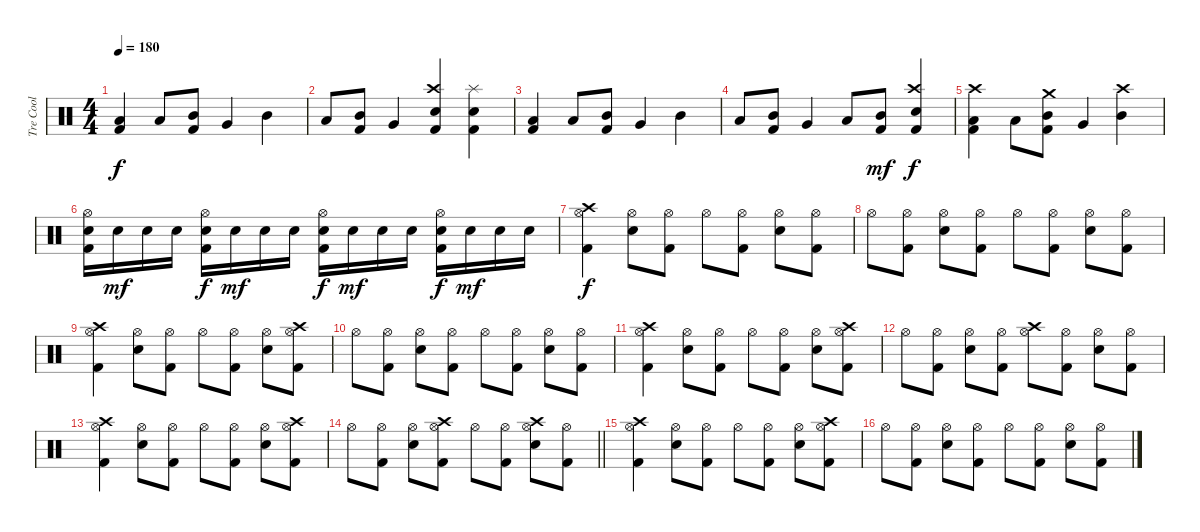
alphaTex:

\track ("Tre Cool" "Tre Cool") {instrument percussion}
\staff {score}
\articulation defaults
\ts (4 4)
\tempo 180
\clef neutral
\ks c
("Low Tom (hit)" "Kick (hit) 2").4{dy f} "Low Tom (hit)".8 ("Mid Tom (hit)" "Kick (hit) 2").8 "Very Low Tom (hit)".4 "Mid Tom (hit)".4 |
"Low Tom (hit)".8 ("Mid Tom (hit)" "Kick (hit) 2").8 "Very Low Tom (hit)".4 ("Crash high (hit)" "Electric Snare (hit)" "Kick (hit) 2").4 ("Splash (hit)" "Electric Snare (hit)" "Kick (hit) 2").4 |
("Low Tom (hit)" "Kick (hit) 2").4 "Low Tom (hit)".8 ("Mid Tom (hit)" "Kick (hit) 2").8 "Very Low Tom (hit)".4 "Mid Tom (hit)".4 |
"Low Tom (hit)".8 ("Mid Tom (hit)" "Kick (hit) 2").8 "Very Low Tom (hit)".4 "Low Tom (hit)".8 ("Mid Tom (hit)" "Kick (hit) 2").8{dy mf} ("Crash high (hit)" "Electric Snare (hit)" "Kick (hit) 2").4{dy f} |
("Crash high (hit)" "Low Tom (hit)" "Kick (hit) 2").4 "Low Tom (hit)".8 ("Crash medium (hit)" "Mid Tom (hit)" "Kick (hit) 2").8 "Very Low Tom (hit)".4 ("Crash high (hit)" "Mid Tom (hit)").4 |
("Hi-Hat (open)" "Electric Snare (hit)" "Kick (hit) 2").16 "Electric Snare (hit)".16{dy mf} "Electric Snare (hit)".16 "Electric Snare (hit)".16 ("Hi-Hat (open)" "Electric Snare (hit)" "Kick (hit) 2").16{dy f} "Electric Snare (hit)".16{dy mf} "Electric Snare (hit)".16 "Electric Snare (hit)".16 ("Hi-Hat (open)" "Electric Snare (hit)" "Kick (hit) 2").16{dy f} "Electric Snare (hit)".16{dy mf} "Electric Snare (hit)".16 "Electric Snare (hit)".16 ("Hi-Hat (open)" "Electric Snare (hit)" "Kick (hit) 2").16{dy f} "Electric Snare (hit)".16{dy mf} "Electric Snare (hit)".16 "Electric Snare (hit)".16 |
("Crash high (hit)" "Hi-Hat (open)" "Kick (hit) 2").4{dy f} ("Hi-Hat (open)" "Electric Snare (hit)").8 ("Hi-Hat (open)" "Kick (hit) 2").8 "Hi-Hat (open)".8 ("Hi-Hat (open)" "Kick (hit) 2").8 ("Hi-Hat (open)" "Electric Snare (hit)").8 ("Hi-Hat (open)" "Kick (hit) 2").8 |
"Hi-Hat (open)".8 ("Hi-Hat (open)" "Kick (hit) 2").8 ("Hi-Hat (open)" "Electric Snare (hit)").8 ("Hi-Hat (open)" "Kick (hit) 2").8 "Hi-Hat (open)".8 ("Hi-Hat (open)" "Kick (hit) 2").8 ("Hi-Hat (open)" "Electric Snare (hit)").8 ("Hi-Hat (open)" "Kick (hit) 2").8 |
("Crash high (hit)" "Hi-Hat (open)" "Kick (hit) 2").4 ("Hi-Hat (open)" "Electric Snare (hit)").8 ("Hi-Hat (open)" "Kick (hit) 2").8 "Hi-Hat (open)".8 ("Hi-Hat (open)" "Kick (hit) 2").8 ("Hi-Hat (open)" "Electric Snare (hit)").8 ("Crash high (hit)" "Hi-Hat (open)" "Kick (hit) 2").8 |
"Hi-Hat (open)".8 ("Hi-Hat (open)" "Kick (hit) 2").8 ("Hi-Hat (open)" "Electric Snare (hit)").8 ("Hi-Hat (open)" "Kick (hit) 2").8 "Hi-Hat (open)".8 ("Hi-Hat (open)" "Kick (hit) 2").8 ("Hi-Hat (open)" "Electric Snare (hit)").8 ("Hi-Hat (open)" "Kick (hit) 2").8 |
("Crash high (hit)" "Hi-Hat (open)" "Kick (hit) 2").4 ("Hi-Hat (open)" "Electric Snare (hit)").8 ("Hi-Hat (open)" "Kick (hit) 2").8 "Hi-Hat (open)".8 ("Hi-Hat (open)" "Kick (hit) 2").8 ("Hi-Hat (open)" "Electric Snare (hit)").8 ("Crash high (hit)" "Hi-Hat (open)" "Kick (hit) 2").8 |
"Hi-Hat (open)".8 ("Hi-Hat (open)" "Kick (hit) 2").8 ("Hi-Hat (open)" "Electric Snare (hit)").8 ("Hi-Hat (open)" "Kick (hit) 2").8 ("Crash high (hit)" "Hi-Hat (open)").8 ("Hi-Hat (open)" "Kick (hit) 2").8 ("Hi-Hat (open)" "Electric Snare (hit)").8 ("Hi-Hat (open)" "Kick (hit) 2").8 |
("Crash high (hit)" "Hi-Hat (open)" "Kick (hit) 2").4 ("Hi-Hat (open)" "Electric Snare (hit)").8 ("Hi-Hat (open)" "Kick (hit) 2").8 "Hi-Hat (open)".8 ("Hi-Hat (open)" "Kick (hit) 2").8 ("Hi-Hat (open)" "Electric Snare (hit)").8 ("Crash high (hit)" "Hi-Hat (open)" "Kick (hit) 2").8 |
\barLineRight lightlight "Hi-Hat (open)".8
("Hi-Hat (open)" "Kick (hit) 2").8 ("Hi-Hat (open)" "Electric Snare (hit)").8 ("Crash high (hit)" "Hi-Hat (open)" "Kick (hit) 2").8 "Hi-Hat (open)".8 ("Hi-Hat (open)" "Kick (hit) 2").8 ("Crash high (hit)" "Hi-Hat (open)" "Electric Snare (hit)").8 ("Hi-Hat (open)" "Kick (hit) 2").8 |
("Crash high (hit)" "Hi-Hat (open)" "Kick (hit) 2").4 ("Hi-Hat (open)" "Electric Snare (hit)").8 ("Hi-Hat (open)" "Kick (hit) 2").8 "Hi-Hat (open)".8 ("Hi-Hat (open)" "Kick (hit) 2").8 ("Hi-Hat (open)" "Electric Snare (hit)").8 ("Crash high (hit)" "Hi-Hat (open)" "Kick (hit) 2").8 |
"Hi-Hat (open)".8 ("Hi-Hat (open)" "Kick (hit) 2").8 ("Hi-Hat (open)" "Electric Snare (hit)").8 ("Hi-Hat (open)" "Kick (hit) 2").8 "Hi-Hat (open)".8 ("Hi-Hat (open)" "Kick (hit) 2").8 ("Hi-Hat (open)" "Electric Snare (hit)").8 ("Hi-Hat (open)" "Kick (hit) 2").8
